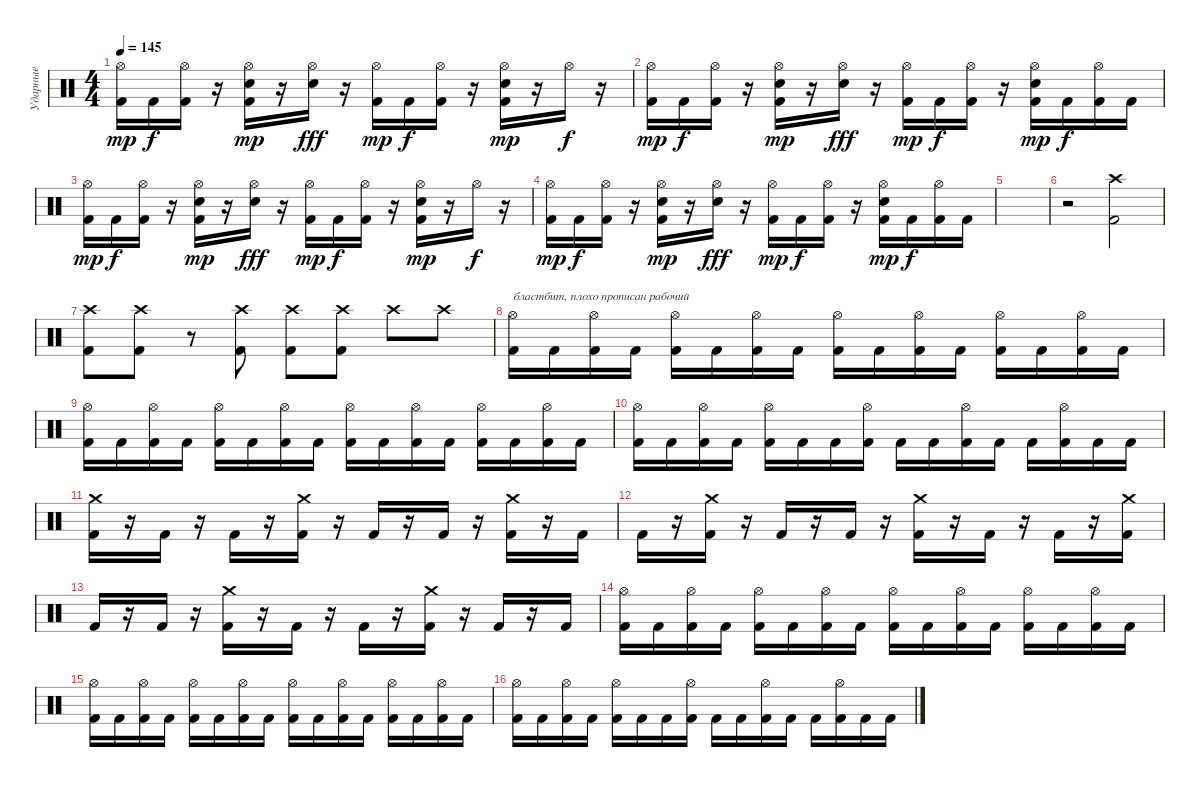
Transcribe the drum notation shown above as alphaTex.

\track ("Ударные" "Ударные") {instrument percussion}
\staff {score}
\articulation defaults
\ts (4 4)
\tempo 145
\clef neutral
\ks c
("Kick (hit) 2" "Hi-Hat (open)").16{dy mp} "Kick (hit) 2".16{dy f} ("Kick (hit) 2" "Hi-Hat (open)").16 r.16 ("Kick (hit) 2" "Hand Clap (hit)" "Hi-Hat (open)").16{dy mp} r.16 ("Hand Clap (hit)" "Hi-Hat (open)").16{dy fff} r.16 ("Kick (hit) 2" "Hi-Hat (open)").16{dy mp} "Kick (hit) 2".16{dy f} ("Kick (hit) 2" "Hi-Hat (open)").16 r.16 ("Kick (hit) 2" "Hand Clap (hit)" "Hi-Hat (open)").16{dy mp} r.16 "Hi-Hat (open)".16{dy f} r.16 |
("Kick (hit) 2" "Hi-Hat (open)").16{dy mp} "Kick (hit) 2".16{dy f} ("Kick (hit) 2" "Hi-Hat (open)").16 r.16 ("Kick (hit) 2" "Hand Clap (hit)" "Hi-Hat (open)").16{dy mp} r.16 ("Hand Clap (hit)" "Hi-Hat (open)").16{dy fff} r.16 ("Kick (hit) 2" "Hi-Hat (open)").16{dy mp} "Kick (hit) 2".16{dy f} ("Kick (hit) 2" "Hi-Hat (open)").16 r.16 ("Kick (hit) 2" "Hand Clap (hit)" "Hi-Hat (open)").16{dy mp} "Kick (hit) 2".16{dy f} ("Kick (hit) 2" "Hi-Hat (open)").16 "Kick (hit) 2".16 |
("Kick (hit) 2" "Hi-Hat (open)").16{dy mp} "Kick (hit) 2".16{dy f} ("Kick (hit) 2" "Hi-Hat (open)").16 r.16 ("Kick (hit) 2" "Hand Clap (hit)" "Hi-Hat (open)").16{dy mp} r.16 ("Hand Clap (hit)" "Hi-Hat (open)").16{dy fff} r.16 ("Kick (hit) 2" "Hi-Hat (open)").16{dy mp} "Kick (hit) 2".16{dy f} ("Kick (hit) 2" "Hi-Hat (open)").16 r.16 ("Kick (hit) 2" "Hand Clap (hit)" "Hi-Hat (open)").16{dy mp} r.16 "Hi-Hat (open)".16{dy f} r.16 |
("Kick (hit) 2" "Hi-Hat (open)").16{dy mp} "Kick (hit) 2".16{dy f} ("Kick (hit) 2" "Hi-Hat (open)").16 r.16 ("Kick (hit) 2" "Hand Clap (hit)" "Hi-Hat (open)").16{dy mp} r.16 ("Hand Clap (hit)" "Hi-Hat (open)").16{dy fff} r.16 ("Kick (hit) 2" "Hi-Hat (open)").16{dy mp} "Kick (hit) 2".16{dy f} ("Kick (hit) 2" "Hi-Hat (open)").16 r.16 ("Kick (hit) 2" "Hand Clap (hit)" "Hi-Hat (open)").16{dy mp} "Kick (hit) 2".16{dy f} ("Kick (hit) 2" "Hi-Hat (open)").16 "Kick (hit) 2".16 |
|
r.2 ("Kick (hit) 2" "Crash high (hit)").2 |
("Kick (hit) 2" "Crash high (hit)").8 ("Kick (hit) 2" "Crash high (hit)").8 r.8 ("Kick (hit) 2" "Crash high (hit)").8 ("Kick (hit) 2" "Crash high (hit)").8 ("Kick (hit) 2" "Crash high (hit)").8 "Crash high (hit)".8 "Crash high (hit)".8 |
("Kick (hit) 2" "Hi-Hat (open)").16{txt "бластбит, плохо прописан рабочий"} "Kick (hit) 2".16 ("Kick (hit) 2" "Hi-Hat (open)").16 "Kick (hit) 2".16 ("Kick (hit) 2" "Hi-Hat (open)").16 "Kick (hit) 2".16 ("Kick (hit) 2" "Hi-Hat (open)").16 "Kick (hit) 2".16 ("Kick (hit) 2" "Hi-Hat (open)").16 "Kick (hit) 2".16 ("Kick (hit) 2" "Hi-Hat (open)").16 "Kick (hit) 2".16 ("Kick (hit) 2" "Hi-Hat (open)").16 "Kick (hit) 2".16 ("Kick (hit) 2" "Hi-Hat (open)").16 "Kick (hit) 2".16 |
("Kick (hit) 2" "Hi-Hat (open)").16 "Kick (hit) 2".16 ("Kick (hit) 2" "Hi-Hat (open)").16 "Kick (hit) 2".16 ("Kick (hit) 2" "Hi-Hat (open)").16 "Kick (hit) 2".16 ("Kick (hit) 2" "Hi-Hat (open)").16 "Kick (hit) 2".16 ("Kick (hit) 2" "Hi-Hat (open)").16 "Kick (hit) 2".16 ("Kick (hit) 2" "Hi-Hat (open)").16 "Kick (hit) 2".16 ("Kick (hit) 2" "Hi-Hat (open)").16 "Kick (hit) 2".16 ("Kick (hit) 2" "Hi-Hat (open)").16 "Kick (hit) 2".16 |
("Kick (hit) 2" "Hi-Hat (open)").16 "Kick (hit) 2".16 ("Kick (hit) 2" "Hi-Hat (open)").16 "Kick (hit) 2".16 ("Kick (hit) 2" "Hi-Hat (open)").16 "Kick (hit) 2".16 "Kick (hit) 2".16 ("Kick (hit) 2" "Hi-Hat (open)").16 "Kick (hit) 2".16 "Kick (hit) 2".16 ("Kick (hit) 2" "Hi-Hat (open)").16 "Kick (hit) 2".16 "Kick (hit) 2".16 ("Kick (hit) 2" "Hi-Hat (open)").16 "Kick (hit) 2".16 "Kick (hit) 2".16 |
("Kick (hit) 2" "Crash medium (hit)").16 r.16 "Kick (hit) 2".16 r.16 "Kick (hit) 2".16 r.16 ("Kick (hit) 2" "Crash medium (hit)").16 r.16 "Kick (hit) 2".16 r.16 "Kick (hit) 2".16 r.16 ("Kick (hit) 2" "Crash medium (hit)").16 r.16 "Kick (hit) 2".16 |
"Kick (hit) 2".16 r.16 ("Kick (hit) 2" "Crash medium (hit)").16 r.16 "Kick (hit) 2".16 r.16 "Kick (hit) 2".16 r.16 ("Kick (hit) 2" "Crash medium (hit)").16 r.16 "Kick (hit) 2".16 r.16 "Kick (hit) 2".16 r.16 ("Kick (hit) 2" "Crash medium (hit)").16 |
"Kick (hit) 2".16 r.16 "Kick (hit) 2".16 r.16 ("Kick (hit) 2" "Crash medium (hit)").16 r.16 "Kick (hit) 2".16 r.16 "Kick (hit) 2".16 r.16 ("Kick (hit) 2" "Crash medium (hit)").16 r.16 "Kick (hit) 2".16 r.16 "Kick (hit) 2".16 |
("Kick (hit) 2" "Hi-Hat (open)").16 "Kick (hit) 2".16 ("Kick (hit) 2" "Hi-Hat (open)").16 "Kick (hit) 2".16 ("Kick (hit) 2" "Hi-Hat (open)").16 "Kick (hit) 2".16 ("Kick (hit) 2" "Hi-Hat (open)").16 "Kick (hit) 2".16 ("Kick (hit) 2" "Hi-Hat (open)").16 "Kick (hit) 2".16 ("Kick (hit) 2" "Hi-Hat (open)").16 "Kick (hit) 2".16 ("Kick (hit) 2" "Hi-Hat (open)").16 "Kick (hit) 2".16 ("Kick (hit) 2" "Hi-Hat (open)").16 "Kick (hit) 2".16 |
("Kick (hit) 2" "Hi-Hat (open)").16 "Kick (hit) 2".16 ("Kick (hit) 2" "Hi-Hat (open)").16 "Kick (hit) 2".16 ("Kick (hit) 2" "Hi-Hat (open)").16 "Kick (hit) 2".16 ("Kick (hit) 2" "Hi-Hat (open)").16 "Kick (hit) 2".16 ("Kick (hit) 2" "Hi-Hat (open)").16 "Kick (hit) 2".16 ("Kick (hit) 2" "Hi-Hat (open)").16 "Kick (hit) 2".16 ("Kick (hit) 2" "Hi-Hat (open)").16 "Kick (hit) 2".16 ("Kick (hit) 2" "Hi-Hat (open)").16 "Kick (hit) 2".16 |
("Kick (hit) 2" "Hi-Hat (open)").16 "Kick (hit) 2".16 ("Kick (hit) 2" "Hi-Hat (open)").16 "Kick (hit) 2".16 ("Kick (hit) 2" "Hi-Hat (open)").16 "Kick (hit) 2".16 "Kick (hit) 2".16 ("Kick (hit) 2" "Hi-Hat (open)").16 "Kick (hit) 2".16 "Kick (hit) 2".16 ("Kick (hit) 2" "Hi-Hat (open)").16 "Kick (hit) 2".16 "Kick (hit) 2".16 ("Kick (hit) 2" "Hi-Hat (open)").16 "Kick (hit) 2".16 "Kick (hit) 2".16
